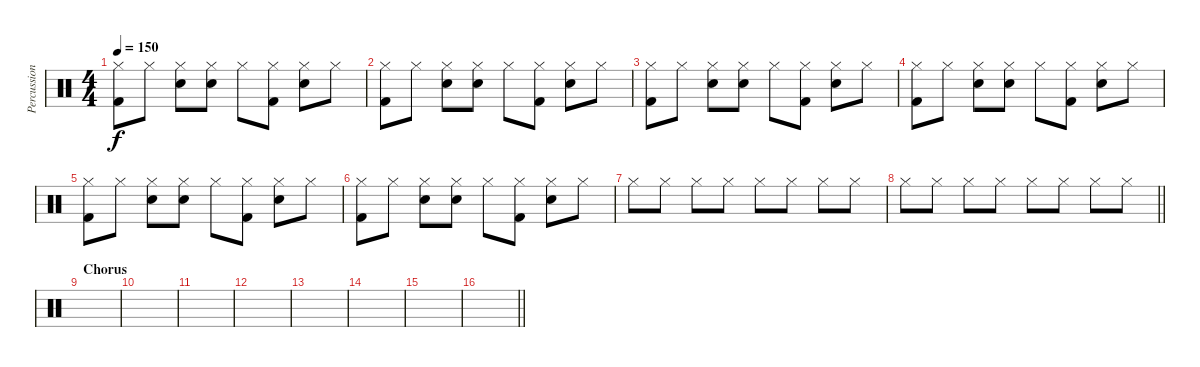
\track ("Percussion" "Percussion") {instrument percussion}
\staff {score}
\articulation defaults
\ts (4 4)
\tempo 150
\clef neutral
\ks c
("Hi-Hat (closed)" "Kick (hit) 2").8{dy f} "Hi-Hat (closed)".8 ("Hi-Hat (closed)" "Snare (hit) 2").8 ("Hi-Hat (closed)" "Snare (hit) 2").8 "Hi-Hat (closed)".8 ("Hi-Hat (closed)" "Kick (hit) 2").8 ("Hi-Hat (closed)" "Snare (hit) 2").8 "Hi-Hat (closed)".8 |
("Hi-Hat (closed)" "Kick (hit) 2").8 "Hi-Hat (closed)".8 ("Hi-Hat (closed)" "Snare (hit) 2").8 ("Hi-Hat (closed)" "Snare (hit) 2").8 "Hi-Hat (closed)".8 ("Hi-Hat (closed)" "Kick (hit) 2").8 ("Hi-Hat (closed)" "Snare (hit) 2").8 "Hi-Hat (closed)".8 |
("Hi-Hat (closed)" "Kick (hit) 2").8 "Hi-Hat (closed)".8 ("Hi-Hat (closed)" "Snare (hit) 2").8 ("Hi-Hat (closed)" "Snare (hit) 2").8 "Hi-Hat (closed)".8 ("Hi-Hat (closed)" "Kick (hit) 2").8 ("Hi-Hat (closed)" "Snare (hit) 2").8 "Hi-Hat (closed)".8 |
("Hi-Hat (closed)" "Kick (hit) 2").8 "Hi-Hat (closed)".8 ("Hi-Hat (closed)" "Snare (hit) 2").8 ("Hi-Hat (closed)" "Snare (hit) 2").8 "Hi-Hat (closed)".8 ("Hi-Hat (closed)" "Kick (hit) 2").8 ("Hi-Hat (closed)" "Snare (hit) 2").8 "Hi-Hat (closed)".8 |
("Hi-Hat (closed)" "Kick (hit) 2").8 "Hi-Hat (closed)".8 ("Hi-Hat (closed)" "Snare (hit) 2").8 ("Hi-Hat (closed)" "Snare (hit) 2").8 "Hi-Hat (closed)".8 ("Hi-Hat (closed)" "Kick (hit) 2").8 ("Hi-Hat (closed)" "Snare (hit) 2").8 "Hi-Hat (closed)".8 |
("Hi-Hat (closed)" "Kick (hit) 2").8 "Hi-Hat (closed)".8 ("Hi-Hat (closed)" "Snare (hit) 2").8 ("Hi-Hat (closed)" "Snare (hit) 2").8 "Hi-Hat (closed)".8 ("Hi-Hat (closed)" "Kick (hit) 2").8 ("Hi-Hat (closed)" "Snare (hit) 2").8 "Hi-Hat (closed)".8 |
"Hi-Hat (closed)".8 "Hi-Hat (closed)".8 "Hi-Hat (closed)".8 "Hi-Hat (closed)".8 "Hi-Hat (closed)".8 "Hi-Hat (closed)".8 "Hi-Hat (closed)".8 "Hi-Hat (closed)".8 |
\barLineRight lightlight "Hi-Hat (closed)".8 "Hi-Hat (closed)".8 "Hi-Hat (closed)".8 "Hi-Hat (closed)".8 "Hi-Hat (closed)".8 "Hi-Hat (closed)".8 "Hi-Hat (closed)".8 "Hi-Hat (closed)".8
|
\section ("" "Chorus")
|
|
|
|
|
|
|
\barLineRight lightlight
